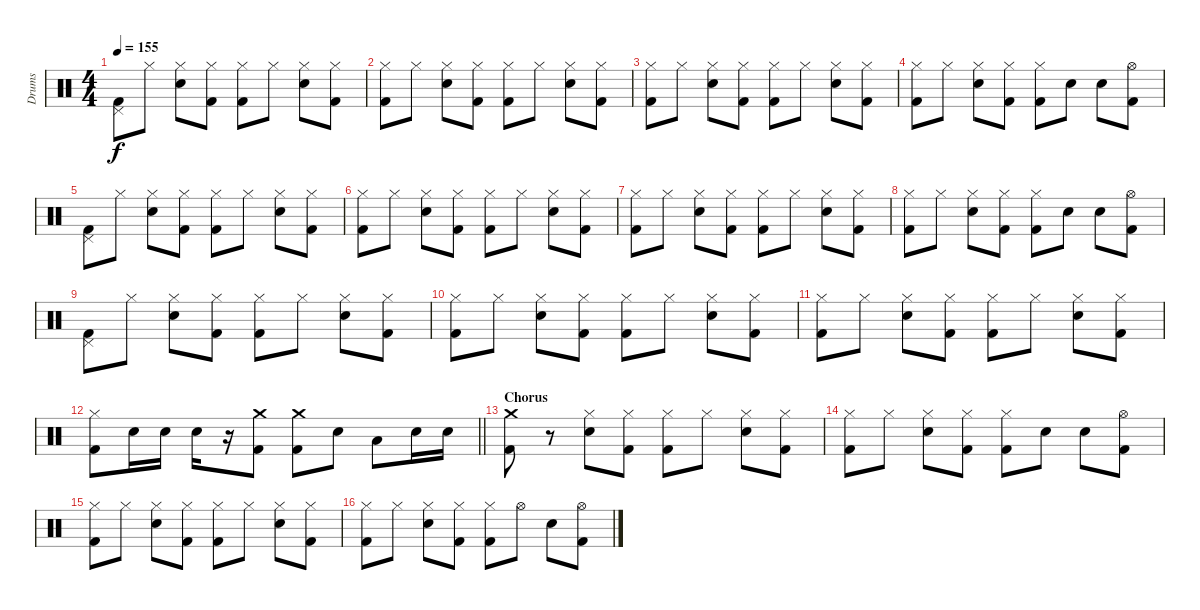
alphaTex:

\track ("Drums" "Drums") {instrument percussion}
\staff {score}
\articulation defaults
\ts (4 4)
\tempo 155
\clef neutral
\ks c
("Pedal Hi-Hat (hit)" "Kick (hit) 2").8{dy f} "Hi-Hat (closed)".8 ("Hi-Hat (closed)" "Snare (hit) 2").8 ("Hi-Hat (closed)" "Kick (hit) 2").8 ("Hi-Hat (closed)" "Kick (hit) 2").8 "Hi-Hat (closed)".8 ("Hi-Hat (closed)" "Snare (hit) 2").8 ("Hi-Hat (closed)" "Kick (hit) 2").8 |
("Hi-Hat (closed)" "Kick (hit) 2").8 "Hi-Hat (closed)".8 ("Hi-Hat (closed)" "Snare (hit) 2").8 ("Hi-Hat (closed)" "Kick (hit) 2").8 ("Hi-Hat (closed)" "Kick (hit) 2").8 "Hi-Hat (closed)".8 ("Hi-Hat (closed)" "Snare (hit) 2").8 ("Hi-Hat (closed)" "Kick (hit) 2").8 |
("Hi-Hat (closed)" "Kick (hit) 2").8 "Hi-Hat (closed)".8 ("Hi-Hat (closed)" "Snare (hit) 2").8 ("Hi-Hat (closed)" "Kick (hit) 2").8 ("Hi-Hat (closed)" "Kick (hit) 2").8 "Hi-Hat (closed)".8 ("Hi-Hat (closed)" "Snare (hit) 2").8 ("Hi-Hat (closed)" "Kick (hit) 2").8 |
("Hi-Hat (closed)" "Kick (hit) 2").8 "Hi-Hat (closed)".8 ("Hi-Hat (closed)" "Snare (hit) 2").8 ("Hi-Hat (closed)" "Kick (hit) 2").8 ("Hi-Hat (closed)" "Kick (hit) 2").8 "Snare (hit) 2".8 "Snare (hit) 2".8 ("Hi-Hat (open)" "Kick (hit) 2").8 |
("Pedal Hi-Hat (hit)" "Kick (hit) 2").8 "Hi-Hat (closed)".8 ("Hi-Hat (closed)" "Snare (hit) 2").8 ("Hi-Hat (closed)" "Kick (hit) 2").8 ("Hi-Hat (closed)" "Kick (hit) 2").8 "Hi-Hat (closed)".8 ("Hi-Hat (closed)" "Snare (hit) 2").8 ("Hi-Hat (closed)" "Kick (hit) 2").8 |
("Hi-Hat (closed)" "Kick (hit) 2").8 "Hi-Hat (closed)".8 ("Hi-Hat (closed)" "Snare (hit) 2").8 ("Hi-Hat (closed)" "Kick (hit) 2").8 ("Hi-Hat (closed)" "Kick (hit) 2").8 "Hi-Hat (closed)".8 ("Hi-Hat (closed)" "Snare (hit) 2").8 ("Hi-Hat (closed)" "Kick (hit) 2").8 |
("Hi-Hat (closed)" "Kick (hit) 2").8 "Hi-Hat (closed)".8 ("Hi-Hat (closed)" "Snare (hit) 2").8 ("Hi-Hat (closed)" "Kick (hit) 2").8 ("Hi-Hat (closed)" "Kick (hit) 2").8 "Hi-Hat (closed)".8 ("Hi-Hat (closed)" "Snare (hit) 2").8 ("Hi-Hat (closed)" "Kick (hit) 2").8 |
("Hi-Hat (closed)" "Kick (hit) 2").8 "Hi-Hat (closed)".8 ("Hi-Hat (closed)" "Snare (hit) 2").8 ("Hi-Hat (closed)" "Kick (hit) 2").8 ("Hi-Hat (closed)" "Kick (hit) 2").8 "Snare (hit) 2".8 "Snare (hit) 2".8 ("Hi-Hat (open)" "Kick (hit) 2").8 |
("Pedal Hi-Hat (hit)" "Kick (hit) 2").8 "Hi-Hat (closed)".8 ("Hi-Hat (closed)" "Snare (hit) 2").8 ("Hi-Hat (closed)" "Kick (hit) 2").8 ("Hi-Hat (closed)" "Kick (hit) 2").8 "Hi-Hat (closed)".8 ("Hi-Hat (closed)" "Snare (hit) 2").8 ("Hi-Hat (closed)" "Kick (hit) 2").8 |
("Hi-Hat (closed)" "Kick (hit) 2").8 "Hi-Hat (closed)".8 ("Hi-Hat (closed)" "Snare (hit) 2").8 ("Hi-Hat (closed)" "Kick (hit) 2").8 ("Hi-Hat (closed)" "Kick (hit) 2").8 "Hi-Hat (closed)".8 ("Hi-Hat (closed)" "Snare (hit) 2").8 ("Hi-Hat (closed)" "Kick (hit) 2").8 |
("Hi-Hat (closed)" "Kick (hit) 2").8 "Hi-Hat (closed)".8 ("Hi-Hat (closed)" "Snare (hit) 2").8 ("Hi-Hat (closed)" "Kick (hit) 2").8 ("Hi-Hat (closed)" "Kick (hit) 2").8 "Hi-Hat (closed)".8 ("Hi-Hat (closed)" "Snare (hit) 2").8 ("Hi-Hat (closed)" "Kick (hit) 2").8 |
\barLineRight lightlight
("Hi-Hat (closed)" "Kick (hit) 2").8 "Snare (hit) 2".16 "Snare (hit) 2".16 "Snare (hit) 2".16 r.16 ("Crash medium (hit)" "Kick (hit) 2").8 ("Crash medium (hit)" "Kick (hit) 2").8 "Snare (hit) 2".8 "Low Tom (hit)".8 "Snare (hit) 2".16 "Snare (hit) 2".16 |
\section ("" "Chorus")
("Crash medium (hit)" "Kick (hit) 2").8 r.8 ("Hi-Hat (closed)" "Snare (hit) 2").8 ("Hi-Hat (closed)" "Kick (hit) 2").8 ("Hi-Hat (closed)" "Kick (hit) 2").8 "Hi-Hat (closed)".8 ("Hi-Hat (closed)" "Snare (hit) 2").8 ("Hi-Hat (closed)" "Kick (hit) 2").8 |
("Hi-Hat (closed)" "Kick (hit) 2").8 "Hi-Hat (closed)".8 ("Hi-Hat (closed)" "Snare (hit) 2").8 ("Hi-Hat (closed)" "Kick (hit) 2").8 ("Hi-Hat (closed)" "Kick (hit) 2").8 "Snare (hit) 2".8 "Snare (hit) 2".8 ("Hi-Hat (open)" "Kick (hit) 2").8 |
("Hi-Hat (closed)" "Kick (hit) 2").8 "Hi-Hat (closed)".8 ("Hi-Hat (closed)" "Snare (hit) 2").8 ("Hi-Hat (closed)" "Kick (hit) 2").8 ("Hi-Hat (closed)" "Kick (hit) 2").8 "Hi-Hat (closed)".8 ("Hi-Hat (closed)" "Snare (hit) 2").8 ("Hi-Hat (closed)" "Kick (hit) 2").8 |
("Hi-Hat (closed)" "Kick (hit) 2").8 "Hi-Hat (closed)".8 ("Hi-Hat (closed)" "Snare (hit) 2").8 ("Hi-Hat (closed)" "Kick (hit) 2").8 ("Hi-Hat (closed)" "Kick (hit) 2").8 "Hi-Hat (open)".8 "Snare (hit) 2".8 ("Hi-Hat (open)" "Kick (hit) 2").8
